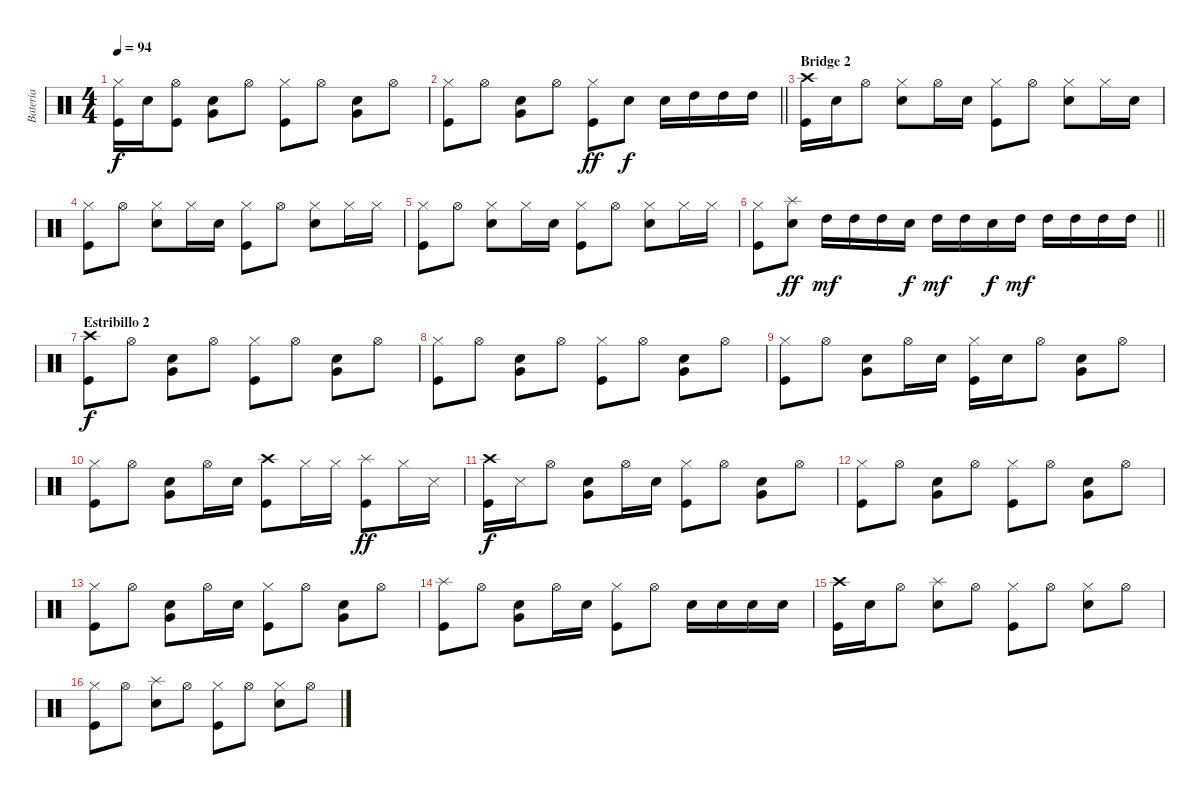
\track ("Batería" "Batería") {instrument percussion}
\staff {score}
\articulation defaults
\ts (4 4)
\tempo 94
\clef neutral
\ks c
("Hi-Hat (closed)" "Kick (hit)").16{dy f} "Snare (hit) 2".16 ("Hi-Hat (open)" "Kick (hit)").8 ("Snare (hit) 2" "Very Low Tom (hit)").8 "Hi-Hat (open)".8 ("Hi-Hat (closed)" "Kick (hit)").8 "Hi-Hat (open)".8 ("Snare (hit) 2" "Very Low Tom (hit)").8 "Hi-Hat (open)".8 |
\barLineRight lightlight
("Hi-Hat (closed)" "Kick (hit)").8 "Hi-Hat (open)".8 ("Snare (hit) 2" "Very Low Tom (hit)").8 "Hi-Hat (open)".8 ("Hi-Hat (closed)" "Kick (hit)").8{dy ff} "Snare (hit) 2".8{dy f} "Snare (hit) 2".16 "High Tom (hit)".16 "High Tom (hit)".16 "High Tom (hit)".16 |
\section ("" "Bridge 2")
("Crash high (hit)" "Kick (hit)").16 "Snare (hit) 2".16 "Hi-Hat (open)".8 ("Hi-Hat (closed)" "Snare (hit) 2").8 "Hi-Hat (open)".16 "Snare (hit) 2".16 ("Hi-Hat (closed)" "Kick (hit)").8 "Hi-Hat (open)".8 ("Hi-Hat (closed)" "Snare (hit) 2").8 "Hi-Hat (closed)".16 "Snare (hit) 2".16 |
("Hi-Hat (closed)" "Kick (hit)").8 "Hi-Hat (open)".8 ("Hi-Hat (closed)" "Snare (hit) 2").8 "Hi-Hat (closed)".16 "Snare (hit) 2".16 ("Hi-Hat (closed)" "Kick (hit)").8 "Hi-Hat (open)".8 ("Hi-Hat (closed)" "Snare (hit) 2").8 "Hi-Hat (closed)".16 "Hi-Hat (closed)".16 |
("Hi-Hat (closed)" "Kick (hit)").8 "Hi-Hat (open)".8 ("Hi-Hat (closed)" "Snare (hit) 2").8 "Hi-Hat (closed)".16 "Snare (hit) 2".16 ("Hi-Hat (closed)" "Kick (hit)").8 "Hi-Hat (open)".8 ("Hi-Hat (closed)" "Snare (hit) 2").8 "Hi-Hat (closed)".16 "Hi-Hat (closed)".16 |
\barLineRight lightlight
("Hi-Hat (closed)" "Kick (hit)").8 ("Splash (hit)" "Snare (hit) 2").8{dy ff} "High Tom (hit)".16{dy mf} "High Tom (hit)".16 "High Tom (hit)".16 "Snare (hit) 2".16{dy f} "High Tom (hit)".16{dy mf} "High Tom (hit)".16 "Snare (hit) 2".16{dy f} "High Tom (hit)".16{dy mf} "High Tom (hit)".16 "High Tom (hit)".16 "High Tom (hit)".16 "High Tom (hit)".16 |
\section ("" "Estribillo 2")
("Crash high (hit)" "Kick (hit)").8{dy f} "Hi-Hat (open)".8 ("Snare (hit) 2" "Very Low Tom (hit)").8 "Hi-Hat (open)".8 ("Hi-Hat (closed)" "Kick (hit)").8 "Hi-Hat (open)".8 ("Snare (hit) 2" "Very Low Tom (hit)").8 "Hi-Hat (open)".8 |
("Hi-Hat (closed)" "Kick (hit)").8 "Hi-Hat (open)".8 ("Snare (hit) 2" "Very Low Tom (hit)").8 "Hi-Hat (open)".8 ("Hi-Hat (closed)" "Kick (hit)").8 "Hi-Hat (open)".8 ("Snare (hit) 2" "Very Low Tom (hit)").8 "Hi-Hat (open)".8 |
("Hi-Hat (closed)" "Kick (hit)").8 "Hi-Hat (open)".8 ("Snare (hit) 2" "Very Low Tom (hit)").8 "Hi-Hat (open)".16 "Snare (hit) 2".16 ("Hi-Hat (closed)" "Kick (hit)").16 "Snare (hit) 2".16 "Hi-Hat (open)".8 ("Snare (hit) 2" "Very Low Tom (hit)").8 "Hi-Hat (open)".8 |
("Hi-Hat (closed)" "Kick (hit)").8 "Hi-Hat (open)".8 ("Snare (hit) 2" "Very Low Tom (hit)").8 "Hi-Hat (open)".16 "Snare (hit) 2".16 ("Crash high (hit)" "Kick (hit)").8 "Hi-Hat (closed)".16 "Hi-Hat (closed)".16 ("Splash (hit)" "Kick (hit)").8{dy ff} "Hi-Hat (closed)".16 "Snare (side stick) 3".16 |
("Crash high (hit)" "Kick (hit)").16{dy f} "Snare (side stick) 3".16 "Hi-Hat (open)".8 ("Snare (hit) 2" "Very Low Tom (hit)").8 "Hi-Hat (open)".16 "Snare (hit) 2".16 ("Hi-Hat (closed)" "Kick (hit)").8 "Hi-Hat (open)".8 ("Snare (hit) 2" "Very Low Tom (hit)").8 "Hi-Hat (open)".8 |
("Hi-Hat (closed)" "Kick (hit)").8 "Hi-Hat (open)".8 ("Snare (hit) 2" "Very Low Tom (hit)").8 "Hi-Hat (open)".8 ("Hi-Hat (closed)" "Kick (hit)").8 "Hi-Hat (open)".8 ("Snare (hit) 2" "Very Low Tom (hit)").8 "Hi-Hat (open)".8 |
("Hi-Hat (closed)" "Kick (hit)").8 "Hi-Hat (open)".8 ("Snare (hit) 2" "Very Low Tom (hit)").8 "Hi-Hat (open)".16 "Snare (hit) 2".16 ("Hi-Hat (closed)" "Kick (hit)").8 "Hi-Hat (open)".8 ("Snare (hit) 2" "Very Low Tom (hit)").8 "Hi-Hat (open)".8 |
("Splash (hit)" "Kick (hit)").8 "Hi-Hat (open)".8 ("Snare (hit) 2" "Very Low Tom (hit)").8 "Hi-Hat (open)".16 "Snare (hit) 2".16 ("Hi-Hat (closed)" "Kick (hit)").8 "Hi-Hat (open)".8 "Snare (hit) 2".16 "Snare (hit) 2".16 "Snare (hit) 2".16 "Snare (hit) 2".16 |
("Crash high (hit)" "Kick (hit)").16 "Snare (hit) 2".16 "Hi-Hat (open)".8 ("Splash (hit)" "Snare (hit) 2").8 "Hi-Hat (open)".8 ("Hi-Hat (closed)" "Kick (hit)").8 "Hi-Hat (open)".8 ("Hi-Hat (closed)" "Snare (hit) 2").8 "Hi-Hat (open)".8 |
("Hi-Hat (closed)" "Kick (hit)").8 "Hi-Hat (open)".8 ("Splash (hit)" "Snare (hit) 2").8 "Hi-Hat (open)".8 ("Hi-Hat (closed)" "Kick (hit)").8 "Hi-Hat (open)".8 ("Hi-Hat (closed)" "Snare (hit) 2").8 "Hi-Hat (open)".8
